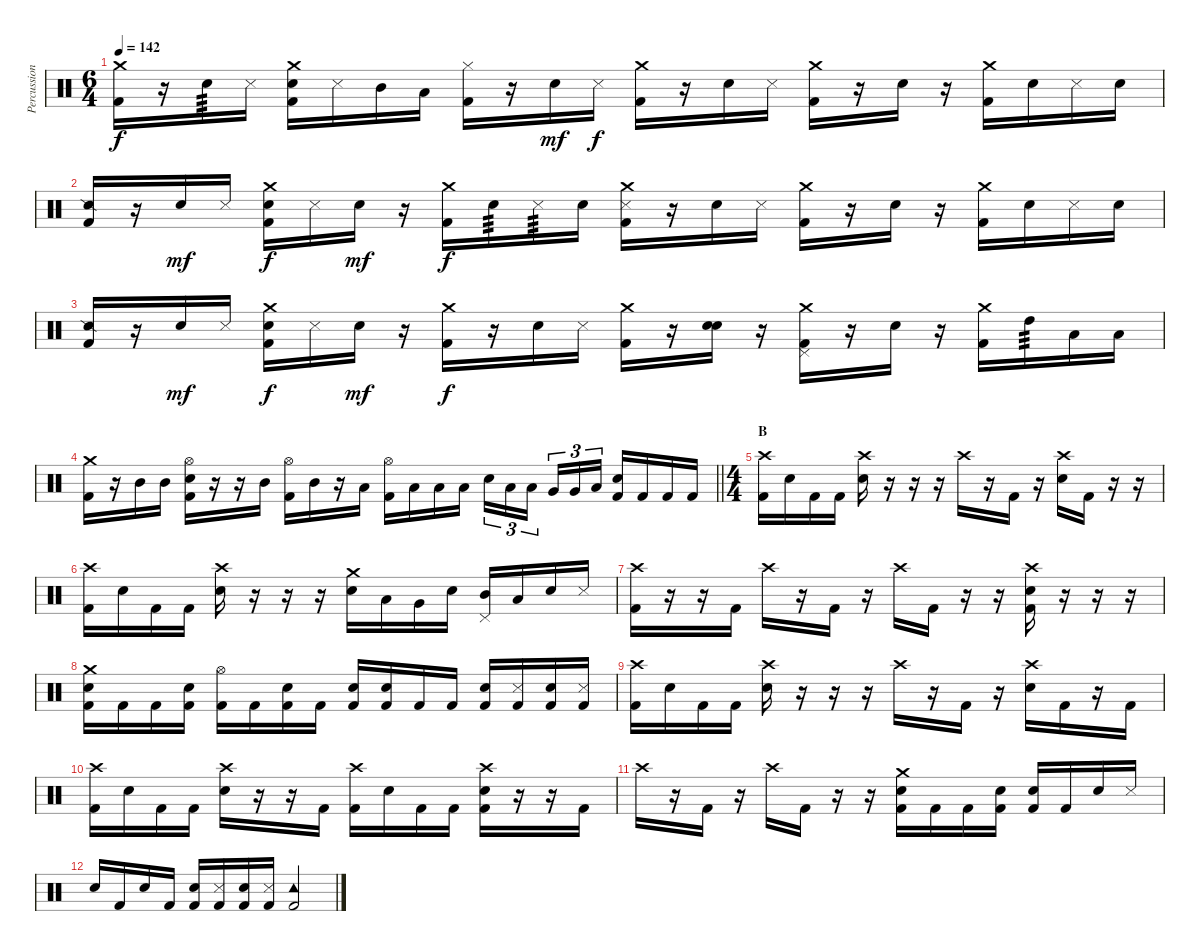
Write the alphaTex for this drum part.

\track ("Percussion" "Percussion") {instrument percussion}
\staff {score}
\articulation defaults
\ts (6 4)
\tempo 142
\clef neutral
\ks c
("Crash medium (hit)" "Kick (hit) 2").16{dy f} r.16 "Snare (hit) 2".16{tp 3} "Metronome (hit)".16 ("Crash medium (hit)" "Snare (hit) 2" "Kick (hit) 2").16 "Metronome (hit)".16 "Mid Tom (hit)".16 "Low Tom (hit)".16 ("Hi-Hat (closed)" "Kick (hit) 2").16 r.16 "Snare (hit) 2".16{dy mf} "Metronome (hit)".16{dy f} ("Crash medium (hit)" "Kick (hit) 2").16 r.16 "Snare (hit) 2".16 "Metronome (hit)".16 ("Crash medium (hit)" "Kick (hit) 2").16 r.16 "Snare (hit) 2".16 r.16 ("Crash medium (hit)" "Kick (hit) 2").16 "Snare (hit) 2".16 "Metronome (hit)".16 "Snare (hit) 2".16 |
("Snare (side stick) 2" "Kick (hit) 2").16 r.16 "Snare (hit) 2".16{dy mf} "Metronome (hit)".16 ("Crash medium (hit)" "Snare (hit) 2" "Kick (hit) 2").16{dy f} "Metronome (hit)".16 "Snare (hit) 2".16{dy mf} r.16 ("Crash medium (hit)" "Kick (hit) 2").16{dy f} "Snare (hit) 2".16{tp 3} "Metronome (hit)".16{tp 3} "Snare (hit) 2".16 ("Crash medium (hit)" "Metronome (hit)" "Kick (hit) 2").16 r.16 "Snare (hit) 2".16 "Metronome (hit)".16 ("Crash medium (hit)" "Kick (hit) 2").16 r.16 "Snare (hit) 2".16 r.16 ("Crash medium (hit)" "Kick (hit) 2").16 "Snare (hit) 2".16 "Metronome (hit)".16 "Snare (hit) 2".16 |
("Snare (side stick) 2" "Kick (hit) 2").16 r.16 "Snare (hit) 2".16{dy mf} "Metronome (hit)".16 ("Crash medium (hit)" "Snare (hit) 2" "Kick (hit) 2").16{dy f} "Metronome (hit)".16 "Snare (hit) 2".16{dy mf} r.16 ("Crash medium (hit)" "Kick (hit) 2").16{dy f} r.16 "Snare (hit) 2".16 "Metronome (hit)".16 ("Crash medium (hit)" "Kick (hit) 2").16 r.16 ("Snare (hit)" "Snare (hit) 2").16 r.16 ("Crash medium (hit)" "Pedal Hi-Hat (hit)" "Kick (hit) 2").16 r.16 "Snare (hit) 2".16 r.16 ("Crash medium (hit)" "Kick (hit) 2").16 "High Tom (hit)".16{tp 3} "Low Tom (hit)".16 "Low Tom (hit)".16 |
\barLineRight lightlight
("Crash medium (hit)" "Kick (hit) 2").16 r.16 "Mid Tom (hit)".16 "Mid Tom (hit)".16 ("Hi-Hat (open)" "Snare (hit) 2" "Kick (hit) 2").16 r.16 r.16 "Mid Tom (hit)".16 ("Hi-Hat (open)" "Kick (hit) 2").16 "Mid Tom (hit)".16 r.16 "Low Tom (hit)".16 ("Hi-Hat (open)" "Kick (hit) 2").16 "Low Tom (hit)".16 "Low Tom (hit)".16 "Low Tom (hit)".16{beam splitsecondary} "Snare (hit) 2".16{tu (3 2)} "Low Tom (hit)".16{tu (3 2)} "Low Tom (hit)".16{tu (3 2) beam splitsecondary} "Very Low Tom (hit)".16{tu (3 2)} "Very Low Tom (hit)".16{tu (3 2)} "Low Floor Tom (hit)".16{tu (3 2) beam splitsecondary} ("Snare (hit)" "Kick (hit) 2").16 "Kick (hit) 2".16 "Kick (hit) 2".16 "Kick (hit) 2".16 |
\ts (4 4)
\section ("" "B")
("Crash high (hit)" "Kick (hit) 2").16 "Snare (hit) 2".16 "Kick (hit) 2".16 "Kick (hit) 2".16 ("Crash high (hit)" "Snare (hit) 2").16 r.16 r.16 r.16 "Crash high (hit)".16 r.16 "Kick (hit) 2".16 r.16 ("Crash high (hit)" "Snare (hit) 2").16 "Kick (hit) 2".16 r.16 r.16 |
("Crash high (hit)" "Kick (hit) 2").16 "Snare (hit) 2".16 "Kick (hit) 2".16 "Kick (hit) 2".16 ("Crash high (hit)" "Snare (hit) 2").16 r.16 r.16 r.16 ("Crash medium (hit)" "Snare (hit) 2").16 "Low Tom (hit)".16 "Very Low Tom (hit)".16 "Snare (hit) 2".16 ("Pedal Hi-Hat (hit)" "Mid Tom (hit)").16 "Low Tom (hit)".16 "Snare (hit) 2".16 "Metronome (hit)".16 |
("Crash high (hit)" "Kick (hit) 2").16 r.16 r.16 "Kick (hit) 2".16 "Crash high (hit)".16 r.16 "Kick (hit) 2".16 r.16 "Crash high (hit)".16 "Kick (hit) 2".16 r.16 r.16 ("Crash high (hit)" "Snare (hit) 2" "Kick (hit) 2").16 r.16 r.16 r.16 |
("Crash medium (hit)" "Snare (hit) 2" "Kick (hit) 2").16 "Kick (hit) 2".16 "Kick (hit) 2".16 ("Snare (hit) 2" "Kick (hit) 2").16 ("Hi-Hat (open)" "Kick (hit) 2").16 "Kick (hit) 2".16 ("Snare (hit) 2" "Kick (hit) 2").16 "Kick (hit) 2".16 ("Snare (hit)" "Kick (hit) 2").16 ("Snare (hit) 2" "Kick (hit) 2").16 "Kick (hit) 2".16 "Kick (hit) 2".16 ("Snare (hit) 2" "Kick (hit) 2").16 ("Metronome (hit)" "Kick (hit) 2").16 ("Snare (hit) 2" "Kick (hit) 2").16 ("Metronome (hit)" "Kick (hit) 2").16 |
("Crash high (hit)" "Kick (hit) 2").16 "Snare (hit) 2".16 "Kick (hit) 2".16 "Kick (hit) 2".16 ("Crash high (hit)" "Snare (hit) 2").16 r.16 r.16 r.16 "Crash high (hit)".16 r.16 "Kick (hit) 2".16 r.16 ("Crash high (hit)" "Snare (hit) 2").16 "Kick (hit) 2".16 r.16 "Kick (hit) 2".16 |
("Crash high (hit)" "Kick (hit) 2").16 "Snare (hit) 2".16 "Kick (hit) 2".16 "Kick (hit) 2".16 ("Crash high (hit)" "Snare (hit) 2").16 r.16 r.16 "Kick (hit) 2".16 ("Crash high (hit)" "Kick (hit) 2").16 "Snare (hit) 2".16 "Kick (hit) 2".16 "Kick (hit) 2".16 ("Crash high (hit)" "Snare (hit) 2" "Kick (hit) 2").16 r.16 r.16 "Kick (hit) 2".16 |
"Crash high (hit)".16 r.16 "Kick (hit) 2".16 r.16 "Crash high (hit)".16 "Kick (hit) 2".16 r.16 r.16 ("Crash medium (hit)" "Snare (hit) 2" "Kick (hit) 2").16 "Kick (hit) 2".16 "Kick (hit) 2".16 ("Snare (hit) 2" "Kick (hit) 2").16 ("Snare (hit)" "Kick (hit) 2").16 "Kick (hit) 2".16 "Snare (hit) 2".16 "Metronome (hit)".16 |
"Snare (hit) 2".16 "Kick (hit) 2".16 "Snare (hit) 2".16 "Kick (hit) 2".16 ("Snare (hit) 2" "Kick (hit) 2").16 ("Metronome (hit)" "Kick (hit) 2").16 ("Snare (hit) 2" "Kick (hit) 2").16 ("Metronome (hit)" "Kick (hit) 2").16 ("Tambourine (hit)" "Kick (hit) 2").2
